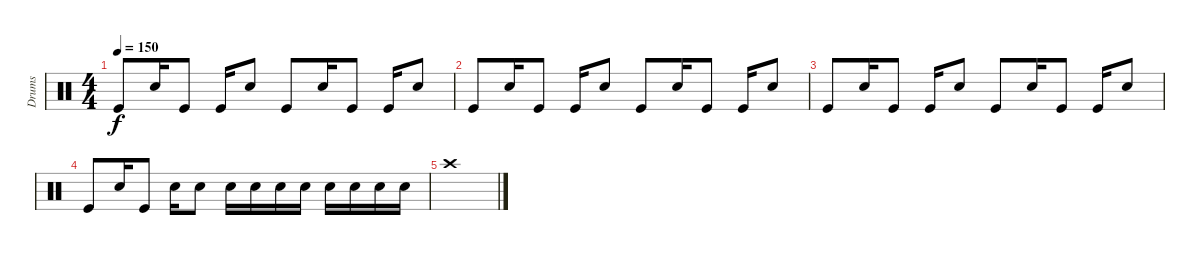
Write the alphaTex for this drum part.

\track ("Drums" "Drums") {instrument percussion}
\staff {score}
\articulation defaults
\ts (4 4)
\tempo 150
\clef neutral
\ks c "Kick (hit)".8{dy f} "Electric Snare (hit)".16 "Kick (hit)".8 "Kick (hit)".16 "Electric Snare (hit)".8 "Kick (hit)".8 "Electric Snare (hit)".16 "Kick (hit)".8 "Kick (hit)".16 "Electric Snare (hit)".8
|
"Kick (hit)".8 "Electric Snare (hit)".16 "Kick (hit)".8 "Kick (hit)".16 "Electric Snare (hit)".8 "Kick (hit)".8 "Electric Snare (hit)".16 "Kick (hit)".8 "Kick (hit)".16 "Electric Snare (hit)".8 |
"Kick (hit)".8 "Electric Snare (hit)".16 "Kick (hit)".8 "Kick (hit)".16 "Electric Snare (hit)".8 "Kick (hit)".8 "Electric Snare (hit)".16 "Kick (hit)".8 "Kick (hit)".16 "Electric Snare (hit)".8 |
"Kick (hit)".8 "Electric Snare (hit)".16 "Kick (hit)".8 "Electric Snare (hit)".16 "Electric Snare (hit)".8 "Electric Snare (hit)".16 "Electric Snare (hit)".16 "Electric Snare (hit)".16 "Electric Snare (hit)".16 "Electric Snare (hit)".16 "Electric Snare (hit)".16 "Electric Snare (hit)".16 "Electric Snare (hit)".16 |
"Crash high (hit)".1
